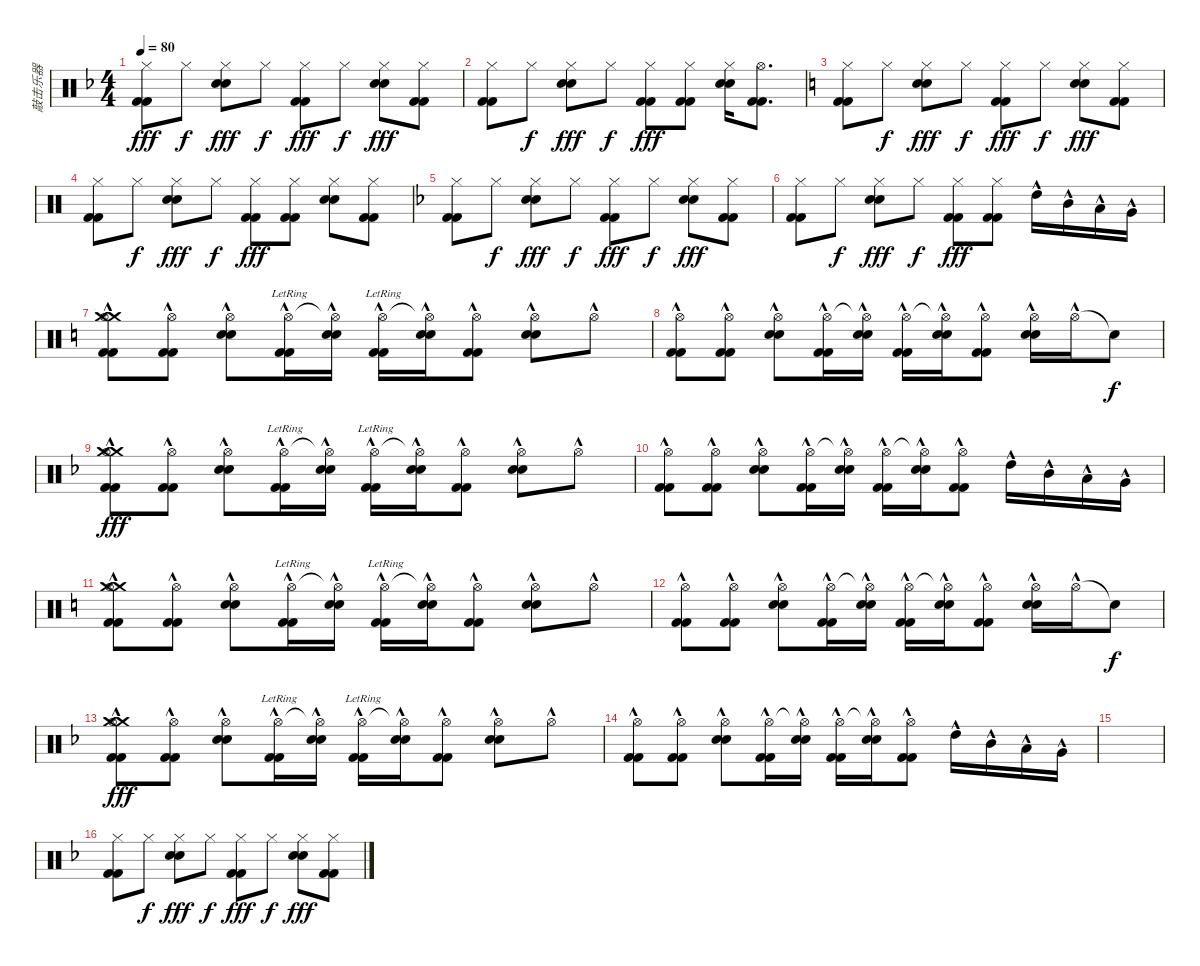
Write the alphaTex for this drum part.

\track ("敲击乐器" "敲击乐器") {instrument percussion}
\staff {score}
\articulation defaults
\ts (4 4)
\tempo 80
\clef neutral
\ks f
("Hi-Hat (closed)" "Kick (hit) 2" "Kick (hit) 2").8{dy fff} "Hi-Hat (closed)".8{dy f} ("Hi-Hat (closed)" "Electric Snare (hit)" "Electric Snare (hit)").8{dy fff} "Hi-Hat (closed)".8{dy f} ("Hi-Hat (closed)" "Kick (hit) 2" "Kick (hit) 2").8{dy fff} "Hi-Hat (closed)".8{dy f} ("Hi-Hat (closed)" "Electric Snare (hit)" "Electric Snare (hit)").8{dy fff} ("Hi-Hat (closed)" "Kick (hit) 2" "Kick (hit) 2").8 |
("Hi-Hat (closed)" "Kick (hit) 2" "Kick (hit) 2").8 "Hi-Hat (closed)".8{dy f} ("Hi-Hat (closed)" "Electric Snare (hit)" "Electric Snare (hit)").8{dy fff} "Hi-Hat (closed)".8{dy f} ("Hi-Hat (closed)" "Kick (hit) 2" "Kick (hit) 2").8{dy fff} ("Hi-Hat (closed)" "Kick (hit) 2" "Kick (hit) 2").8 ("Hi-Hat (closed)" "Electric Snare (hit)" "Electric Snare (hit)").16 ("Hi-Hat (open)" "Kick (hit) 2" "Kick (hit) 2").8{d} |
\ks c
("Hi-Hat (closed)" "Kick (hit) 2" "Kick (hit) 2").8 "Hi-Hat (closed)".8{dy f} ("Hi-Hat (closed)" "Electric Snare (hit)" "Electric Snare (hit)").8{dy fff} "Hi-Hat (closed)".8{dy f} ("Hi-Hat (closed)" "Kick (hit) 2" "Kick (hit) 2").8{dy fff} "Hi-Hat (closed)".8{dy f} ("Hi-Hat (closed)" "Electric Snare (hit)" "Electric Snare (hit)").8{dy fff} ("Hi-Hat (closed)" "Kick (hit) 2" "Kick (hit) 2").8 |
("Hi-Hat (closed)" "Kick (hit) 2" "Kick (hit) 2").8 "Hi-Hat (closed)".8{dy f} ("Hi-Hat (closed)" "Electric Snare (hit)" "Electric Snare (hit)").8{dy fff} "Hi-Hat (closed)".8{dy f} ("Hi-Hat (closed)" "Kick (hit) 2" "Kick (hit) 2").8{dy fff} ("Hi-Hat (closed)" "Kick (hit) 2" "Kick (hit) 2").8 ("Hi-Hat (closed)" "Electric Snare (hit)" "Electric Snare (hit)").8 ("Hi-Hat (closed)" "Kick (hit) 2" "Kick (hit) 2").8 |
\ks f
("Hi-Hat (closed)" "Kick (hit) 2" "Kick (hit) 2").8 "Hi-Hat (closed)".8{dy f} ("Hi-Hat (closed)" "Electric Snare (hit)" "Electric Snare (hit)").8{dy fff} "Hi-Hat (closed)".8{dy f} ("Hi-Hat (closed)" "Kick (hit) 2" "Kick (hit) 2").8{dy fff} "Hi-Hat (closed)".8{dy f} ("Hi-Hat (closed)" "Electric Snare (hit)" "Electric Snare (hit)").8{dy fff} ("Hi-Hat (closed)" "Kick (hit) 2" "Kick (hit) 2").8 |
("Hi-Hat (closed)" "Kick (hit) 2" "Kick (hit) 2").8 "Hi-Hat (closed)".8{dy f} ("Hi-Hat (closed)" "Electric Snare (hit)" "Electric Snare (hit)").8{dy fff} "Hi-Hat (closed)".8{dy f} ("Hi-Hat (closed)" "Kick (hit) 2" "Kick (hit) 2").8{dy fff} ("Hi-Hat (closed)" "Kick (hit) 2" "Kick (hit) 2").8 "High Tom (hit)"{hac}.16 "Mid Tom (hit)"{hac}.16 "Low Tom (hit)"{hac}.16 "Very Low Tom (hit)"{hac}.16 |
\ks c
("Crash medium (hit)"{hac} "Crash medium (hit)"{hac} "Hi-Hat (open)"{hac} "Kick (hit) 2"{hac} "Kick (hit) 2"{hac}).8 ("Hi-Hat (open)"{hac} "Kick (hit) 2"{hac} "Kick (hit) 2"{hac}).8 ("Hi-Hat (open)"{hac} "Electric Snare (hit)"{hac} "Electric Snare (hit)"{hac}).8 ("Hi-Hat (open)"{hac lr} "Kick (hit) 2"{hac} "Kick (hit) 2"{hac}).16 ("Hi-Hat (open)"{t} "Electric Snare (hit)"{hac} "Electric Snare (hit)"{hac}).16 ("Hi-Hat (open)"{hac lr} "Kick (hit) 2"{hac} "Kick (hit) 2"{hac}).16 ("Hi-Hat (open)"{t} "Electric Snare (hit)"{hac} "Electric Snare (hit)"{hac}).16 ("Hi-Hat (open)"{hac} "Kick (hit) 2"{hac} "Kick (hit) 2"{hac}).8 ("Hi-Hat (open)"{hac} "Electric Snare (hit)"{hac} "Electric Snare (hit)"{hac}).8 "Hi-Hat (open)"{hac}.8 |
("Hi-Hat (open)"{hac} "Kick (hit) 2"{hac} "Kick (hit) 2"{hac}).8 ("Hi-Hat (open)"{hac} "Kick (hit) 2"{hac} "Kick (hit) 2"{hac}).8 ("Hi-Hat (open)"{hac} "Electric Snare (hit)"{hac} "Electric Snare (hit)"{hac}).8 ("Hi-Hat (open)"{hac} "Kick (hit) 2"{hac} "Kick (hit) 2"{hac}).16 ("Hi-Hat (open)"{t} "Electric Snare (hit)"{hac} "Electric Snare (hit)"{hac}).16 ("Hi-Hat (open)"{hac} "Kick (hit) 2"{hac} "Kick (hit) 2"{hac}).16 ("Hi-Hat (open)"{t} "Electric Snare (hit)"{hac} "Electric Snare (hit)"{hac}).16 ("Hi-Hat (open)"{hac} "Kick (hit) 2"{hac} "Kick (hit) 2"{hac}).8 ("Hi-Hat (open)"{hac} "Electric Snare (hit)"{hac} "Electric Snare (hit)"{hac}).16 "Hi-Hat (open)"{hac}.16 "Snare (hit)"{t}.8{dy f} |
\ks f
("Crash medium (hit)"{hac} "Crash medium (hit)"{hac} "Hi-Hat (open)"{hac} "Kick (hit) 2"{hac} "Kick (hit) 2"{hac}).8{dy fff} ("Hi-Hat (open)"{hac} "Kick (hit) 2"{hac} "Kick (hit) 2"{hac}).8 ("Hi-Hat (open)"{hac} "Electric Snare (hit)"{hac} "Electric Snare (hit)"{hac}).8 ("Hi-Hat (open)"{hac lr} "Kick (hit) 2"{hac} "Kick (hit) 2"{hac}).16 ("Hi-Hat (open)"{t} "Electric Snare (hit)"{hac} "Electric Snare (hit)"{hac}).16 ("Hi-Hat (open)"{hac lr} "Kick (hit) 2"{hac} "Kick (hit) 2"{hac}).16 ("Hi-Hat (open)"{t} "Electric Snare (hit)"{hac} "Electric Snare (hit)"{hac}).16 ("Hi-Hat (open)"{hac} "Kick (hit) 2"{hac} "Kick (hit) 2"{hac}).8 ("Hi-Hat (open)"{hac} "Electric Snare (hit)"{hac} "Electric Snare (hit)"{hac}).8 "Hi-Hat (open)"{hac}.8 |
("Hi-Hat (open)"{hac} "Kick (hit) 2"{hac} "Kick (hit) 2"{hac}).8 ("Hi-Hat (open)"{hac} "Kick (hit) 2"{hac} "Kick (hit) 2"{hac}).8 ("Hi-Hat (open)"{hac} "Electric Snare (hit)"{hac} "Electric Snare (hit)"{hac}).8 ("Hi-Hat (open)"{hac} "Kick (hit) 2"{hac} "Kick (hit) 2"{hac}).16 ("Hi-Hat (open)"{t} "Electric Snare (hit)"{hac} "Electric Snare (hit)"{hac}).16 ("Hi-Hat (open)"{hac} "Kick (hit) 2"{hac} "Kick (hit) 2"{hac}).16 ("Hi-Hat (open)"{t} "Electric Snare (hit)"{hac} "Electric Snare (hit)"{hac}).16 ("Hi-Hat (open)"{hac} "Kick (hit) 2"{hac} "Kick (hit) 2"{hac}).8 "High Tom (hit)"{hac}.16 "Mid Tom (hit)"{hac}.16 "Low Tom (hit)"{hac}.16 "Very Low Tom (hit)"{hac}.16 |
\ks c
("Crash medium (hit)"{hac} "Crash medium (hit)"{hac} "Hi-Hat (open)"{hac} "Kick (hit) 2"{hac} "Kick (hit) 2"{hac}).8 ("Hi-Hat (open)"{hac} "Kick (hit) 2"{hac} "Kick (hit) 2"{hac}).8 ("Hi-Hat (open)"{hac} "Electric Snare (hit)"{hac} "Electric Snare (hit)"{hac}).8 ("Hi-Hat (open)"{hac lr} "Kick (hit) 2"{hac} "Kick (hit) 2"{hac}).16 ("Hi-Hat (open)"{t} "Electric Snare (hit)"{hac} "Electric Snare (hit)"{hac}).16 ("Hi-Hat (open)"{hac lr} "Kick (hit) 2"{hac} "Kick (hit) 2"{hac}).16 ("Hi-Hat (open)"{t} "Electric Snare (hit)"{hac} "Electric Snare (hit)"{hac}).16 ("Hi-Hat (open)"{hac} "Kick (hit) 2"{hac} "Kick (hit) 2"{hac}).8 ("Hi-Hat (open)"{hac} "Electric Snare (hit)"{hac} "Electric Snare (hit)"{hac}).8 "Hi-Hat (open)"{hac}.8 |
("Hi-Hat (open)"{hac} "Kick (hit) 2"{hac} "Kick (hit) 2"{hac}).8 ("Hi-Hat (open)"{hac} "Kick (hit) 2"{hac} "Kick (hit) 2"{hac}).8 ("Hi-Hat (open)"{hac} "Electric Snare (hit)"{hac} "Electric Snare (hit)"{hac}).8 ("Hi-Hat (open)"{hac} "Kick (hit) 2"{hac} "Kick (hit) 2"{hac}).16 ("Hi-Hat (open)"{t} "Electric Snare (hit)"{hac} "Electric Snare (hit)"{hac}).16 ("Hi-Hat (open)"{hac} "Kick (hit) 2"{hac} "Kick (hit) 2"{hac}).16 ("Hi-Hat (open)"{t} "Electric Snare (hit)"{hac} "Electric Snare (hit)"{hac}).16 ("Hi-Hat (open)"{hac} "Kick (hit) 2"{hac} "Kick (hit) 2"{hac}).8 ("Hi-Hat (open)"{hac} "Electric Snare (hit)"{hac} "Electric Snare (hit)"{hac}).16 "Hi-Hat (open)"{hac}.16 "Snare (hit)"{t}.8{dy f} |
\ks f
("Crash medium (hit)"{hac} "Crash medium (hit)"{hac} "Hi-Hat (open)"{hac} "Kick (hit) 2"{hac} "Kick (hit) 2"{hac}).8{dy fff} ("Hi-Hat (open)"{hac} "Kick (hit) 2"{hac} "Kick (hit) 2"{hac}).8 ("Hi-Hat (open)"{hac} "Electric Snare (hit)"{hac} "Electric Snare (hit)"{hac}).8 ("Hi-Hat (open)"{hac lr} "Kick (hit) 2"{hac} "Kick (hit) 2"{hac}).16 ("Hi-Hat (open)"{t} "Electric Snare (hit)"{hac} "Electric Snare (hit)"{hac}).16 ("Hi-Hat (open)"{hac lr} "Kick (hit) 2"{hac} "Kick (hit) 2"{hac}).16 ("Hi-Hat (open)"{t} "Electric Snare (hit)"{hac} "Electric Snare (hit)"{hac}).16 ("Hi-Hat (open)"{hac} "Kick (hit) 2"{hac} "Kick (hit) 2"{hac}).8 ("Hi-Hat (open)"{hac} "Electric Snare (hit)"{hac} "Electric Snare (hit)"{hac}).8 "Hi-Hat (open)"{hac}.8 |
("Hi-Hat (open)"{hac} "Kick (hit) 2"{hac} "Kick (hit) 2"{hac}).8 ("Hi-Hat (open)"{hac} "Kick (hit) 2"{hac} "Kick (hit) 2"{hac}).8 ("Hi-Hat (open)"{hac} "Electric Snare (hit)"{hac} "Electric Snare (hit)"{hac}).8 ("Hi-Hat (open)"{hac} "Kick (hit) 2"{hac} "Kick (hit) 2"{hac}).16 ("Hi-Hat (open)"{t} "Electric Snare (hit)"{hac} "Electric Snare (hit)"{hac}).16 ("Hi-Hat (open)"{hac} "Kick (hit) 2"{hac} "Kick (hit) 2"{hac}).16 ("Hi-Hat (open)"{t} "Electric Snare (hit)"{hac} "Electric Snare (hit)"{hac}).16 ("Hi-Hat (open)"{hac} "Kick (hit) 2"{hac} "Kick (hit) 2"{hac}).8 "High Tom (hit)"{hac}.16 "Mid Tom (hit)"{hac}.16 "Low Tom (hit)"{hac}.16 "Very Low Tom (hit)"{hac}.16 |
|
("Hi-Hat (closed)" "Kick (hit) 2" "Kick (hit) 2").8 "Hi-Hat (closed)".8{dy f} ("Hi-Hat (closed)" "Electric Snare (hit)" "Electric Snare (hit)").8{dy fff} "Hi-Hat (closed)".8{dy f} ("Hi-Hat (closed)" "Kick (hit) 2" "Kick (hit) 2").8{dy fff} "Hi-Hat (closed)".8{dy f} ("Hi-Hat (closed)" "Electric Snare (hit)" "Electric Snare (hit)").8{dy fff} ("Hi-Hat (closed)" "Kick (hit) 2" "Kick (hit) 2").8
